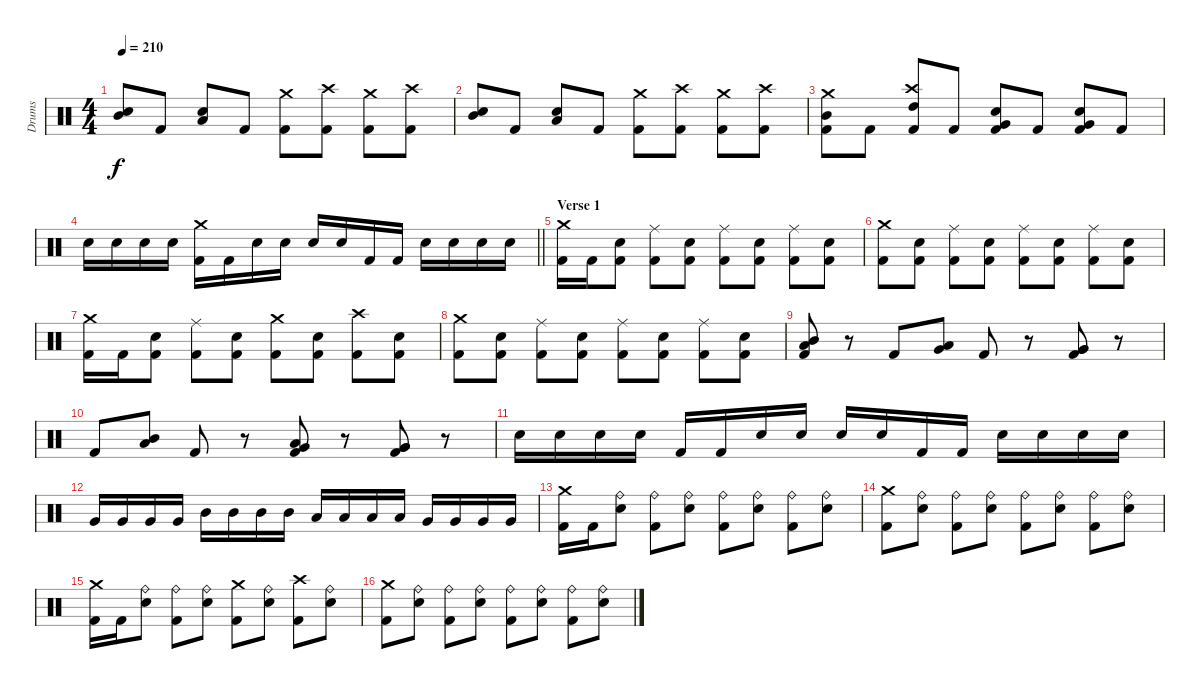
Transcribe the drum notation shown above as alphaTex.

\track ("Drums" "Drums") {instrument percussion}
\staff {score}
\articulation defaults
\ts (4 4)
\tempo 210
\clef neutral
\ks c
("Snare (hit) 2" "Mid Tom (hit)").8{dy f} "Kick (hit) 2".8 ("Snare (hit) 2" "Low Tom (hit)").8 "Kick (hit) 2".8 ("Kick (hit) 2" "Crash medium (hit)").8 ("Kick (hit) 2" "Crash high (hit)").8 ("Kick (hit) 2" "Crash medium (hit)").8 ("Kick (hit) 2" "Crash high (hit)").8 |
("Snare (hit) 2" "Mid Tom (hit)").8 "Kick (hit) 2".8 ("Snare (hit) 2" "Low Tom (hit)").8 "Kick (hit) 2".8 ("Kick (hit) 2" "Crash medium (hit)").8 ("Kick (hit) 2" "Crash high (hit)").8 ("Kick (hit) 2" "Crash medium (hit)").8 ("Kick (hit) 2" "Crash high (hit)").8 |
("Kick (hit) 2" "Mid Tom (hit)" "Crash medium (hit)").8 "Kick (hit) 2".8 ("Kick (hit) 2" "High Tom (hit)" "Crash high (hit)").8 "Kick (hit) 2".8 ("Kick (hit) 2" "Snare (hit) 2" "Very Low Tom (hit)").8 "Kick (hit) 2".8 ("Kick (hit) 2" "Snare (hit) 2" "Very Low Tom (hit)").8 "Kick (hit) 2".8 |
\barLineRight lightlight "Snare (hit) 2".16 "Snare (hit) 2".16 "Snare (hit) 2".16 "Snare (hit) 2".16
("Kick (hit) 2" "Crash medium (hit)").16 "Kick (hit) 2".16 "Snare (hit) 2".16 "Snare (hit) 2".16 "Snare (hit) 2".16 "Snare (hit) 2".16 "Kick (hit) 2".16 "Kick (hit) 2".16 "Snare (hit) 2".16 "Snare (hit) 2".16 "Snare (hit) 2".16 "Snare (hit) 2".16 |
\section ("" "Verse 1")
("Kick (hit) 2" "Crash medium (hit)").16 "Kick (hit) 2".16 ("Kick (hit) 2" "Snare (hit) 2").8 ("Kick (hit) 2" "Ride (middle)").8 ("Kick (hit) 2" "Snare (hit) 2").8 ("Kick (hit) 2" "Ride (middle)").8 ("Kick (hit) 2" "Snare (hit) 2").8 ("Kick (hit) 2" "Ride (middle)").8 ("Kick (hit) 2" "Snare (hit) 2").8 |
("Kick (hit) 2" "Crash medium (hit)").8 ("Kick (hit) 2" "Snare (hit) 2").8 ("Kick (hit) 2" "Ride (middle)").8 ("Kick (hit) 2" "Snare (hit) 2").8 ("Kick (hit) 2" "Ride (middle)").8 ("Kick (hit) 2" "Snare (hit) 2").8 ("Kick (hit) 2" "Ride (middle)").8 ("Kick (hit) 2" "Snare (hit) 2").8 |
("Kick (hit) 2" "Crash medium (hit)").16 "Kick (hit) 2".16 ("Kick (hit) 2" "Snare (hit) 2").8 ("Kick (hit) 2" "Ride (middle)").8 ("Kick (hit) 2" "Snare (hit) 2").8 ("Kick (hit) 2" "Crash medium (hit)").8 ("Kick (hit) 2" "Snare (hit) 2").8 ("Kick (hit) 2" "Crash high (hit)").8 ("Kick (hit) 2" "Snare (hit) 2").8 |
("Kick (hit) 2" "Crash medium (hit)").8 ("Kick (hit) 2" "Snare (hit) 2").8 ("Kick (hit) 2" "Ride (middle)").8 ("Kick (hit) 2" "Snare (hit) 2").8 ("Kick (hit) 2" "Ride (middle)").8 ("Kick (hit) 2" "Snare (hit) 2").8 ("Kick (hit) 2" "Ride (middle)").8 ("Kick (hit) 2" "Snare (hit) 2").8 |
("Kick (hit) 2" "Mid Tom (hit)" "Low Tom (hit)").8 r.8 "Kick (hit) 2".8 ("Low Tom (hit)" "Very Low Tom (hit)").8 "Kick (hit) 2".8 r.8 ("Kick (hit) 2" "Very Low Tom (hit)" "Very Low Tom (hit)").8 r.8 |
"Kick (hit) 2".8 ("Mid Tom (hit)" "Low Tom (hit)").8 "Kick (hit) 2".8 r.8 ("Kick (hit) 2" "Low Tom (hit)" "Very Low Tom (hit)").8 r.8 ("Kick (hit) 2" "Very Low Tom (hit)" "Very Low Tom (hit)").8 r.8 |
"Snare (hit) 2".16 "Snare (hit) 2".16 "Snare (hit) 2".16 "Snare (hit) 2".16 "Kick (hit) 2".16 "Kick (hit) 2".16 "Snare (hit) 2".16 "Snare (hit) 2".16 "Snare (hit) 2".16 "Snare (hit) 2".16 "Kick (hit) 2".16 "Kick (hit) 2".16 "Snare (hit) 2".16 "Snare (hit) 2".16 "Snare (hit) 2".16 "Snare (hit) 2".16 |
"Very Low Tom (hit)".16 "Very Low Tom (hit)".16 "Very Low Tom (hit)".16 "Very Low Tom (hit)".16 "Mid Tom (hit)".16 "Mid Tom (hit)".16 "Mid Tom (hit)".16 "Mid Tom (hit)".16 "Low Tom (hit)".16 "Low Tom (hit)".16 "Low Tom (hit)".16 "Low Tom (hit)".16 "Very Low Tom (hit)".16 "Very Low Tom (hit)".16 "Very Low Tom (hit)".16 "Very Low Tom (hit)".16 |
("Kick (hit) 2" "Crash medium (hit)").16 "Kick (hit) 2".16 ("Snare (hit) 2" "Ride (bell)").8 ("Kick (hit) 2" "Ride (bell)").8 ("Snare (hit) 2" "Ride (bell)").8 ("Kick (hit) 2" "Ride (bell)").8 ("Snare (hit) 2" "Ride (bell)").8 ("Kick (hit) 2" "Ride (bell)").8 ("Snare (hit) 2" "Ride (bell)").8 |
("Kick (hit) 2" "Crash medium (hit)").8 ("Snare (hit) 2" "Ride (bell)").8 ("Kick (hit) 2" "Ride (bell)").8 ("Snare (hit) 2" "Ride (bell)").8 ("Kick (hit) 2" "Ride (bell)").8 ("Snare (hit) 2" "Ride (bell)").8 ("Kick (hit) 2" "Ride (bell)").8 ("Snare (hit) 2" "Ride (bell)").8 |
("Kick (hit) 2" "Crash medium (hit)").16 "Kick (hit) 2".16 ("Snare (hit) 2" "Ride (bell)").8 ("Kick (hit) 2" "Ride (bell)").8 ("Snare (hit) 2" "Ride (bell)").8 ("Kick (hit) 2" "Crash medium (hit)").8 ("Snare (hit) 2" "Ride (bell)").8 ("Kick (hit) 2" "Crash high (hit)").8 ("Snare (hit) 2" "Ride (bell)").8 |
("Kick (hit) 2" "Crash medium (hit)").8 ("Snare (hit) 2" "Ride (bell)").8 ("Kick (hit) 2" "Ride (bell)").8 ("Snare (hit) 2" "Ride (bell)").8 ("Kick (hit) 2" "Ride (bell)").8 ("Snare (hit) 2" "Ride (bell)").8 ("Kick (hit) 2" "Ride (bell)").8 ("Snare (hit) 2" "Ride (bell)").8
